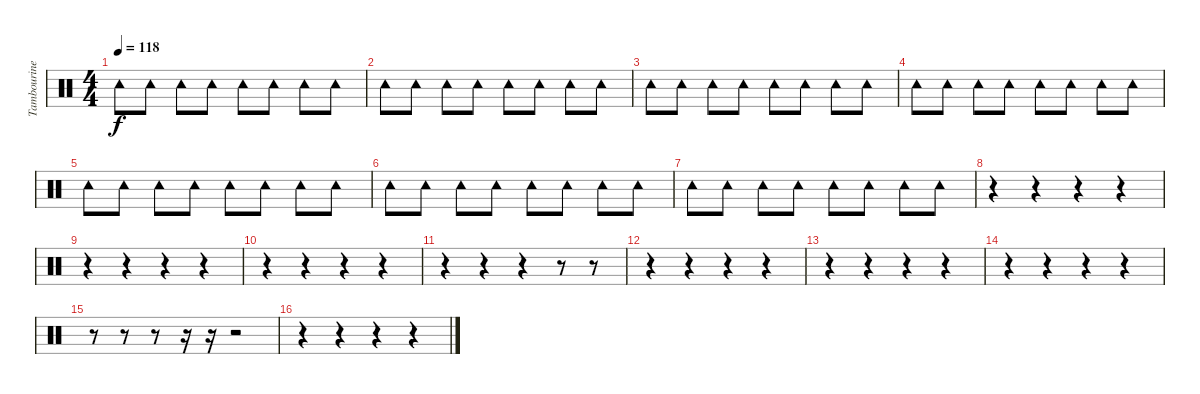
\track ("Tambourine" "Tambourine") {instrument percussion}
\staff {score}
\articulation defaults
\ts (4 4)
\tempo 118
\clef neutral
\ks c "Tambourine (hit)".8{dy f} "Tambourine (hit)".8 "Tambourine (hit)".8 "Tambourine (hit)".8 "Tambourine (hit)".8 "Tambourine (hit)".8 "Tambourine (hit)".8 "Tambourine (hit)".8
|
"Tambourine (hit)".8 "Tambourine (hit)".8 "Tambourine (hit)".8 "Tambourine (hit)".8 "Tambourine (hit)".8 "Tambourine (hit)".8 "Tambourine (hit)".8 "Tambourine (hit)".8 |
"Tambourine (hit)".8 "Tambourine (hit)".8 "Tambourine (hit)".8 "Tambourine (hit)".8 "Tambourine (hit)".8 "Tambourine (hit)".8 "Tambourine (hit)".8 "Tambourine (hit)".8 |
"Tambourine (hit)".8 "Tambourine (hit)".8 "Tambourine (hit)".8 "Tambourine (hit)".8 "Tambourine (hit)".8 "Tambourine (hit)".8 "Tambourine (hit)".8 "Tambourine (hit)".8 |
"Tambourine (hit)".8 "Tambourine (hit)".8 "Tambourine (hit)".8 "Tambourine (hit)".8 "Tambourine (hit)".8 "Tambourine (hit)".8 "Tambourine (hit)".8 "Tambourine (hit)".8 |
"Tambourine (hit)".8 "Tambourine (hit)".8 "Tambourine (hit)".8 "Tambourine (hit)".8 "Tambourine (hit)".8 "Tambourine (hit)".8 "Tambourine (hit)".8 "Tambourine (hit)".8 |
"Tambourine (hit)".8 "Tambourine (hit)".8 "Tambourine (hit)".8 "Tambourine (hit)".8 "Tambourine (hit)".8 "Tambourine (hit)".8 "Tambourine (hit)".8 "Tambourine (hit)".8 |
r.4 r.4 r.4 r.4 |
r.4 r.4 r.4 r.4 |
r.4 r.4 r.4 r.4 |
r.4 r.4 r.4 r.8 r.8 |
r.4 r.4 r.4 r.4 |
r.4 r.4 r.4 r.4 |
r.4 r.4 r.4 r.4 |
r.8 r.8 r.8 r.16 r.16 r.2 |
r.4 r.4 r.4 r.4
